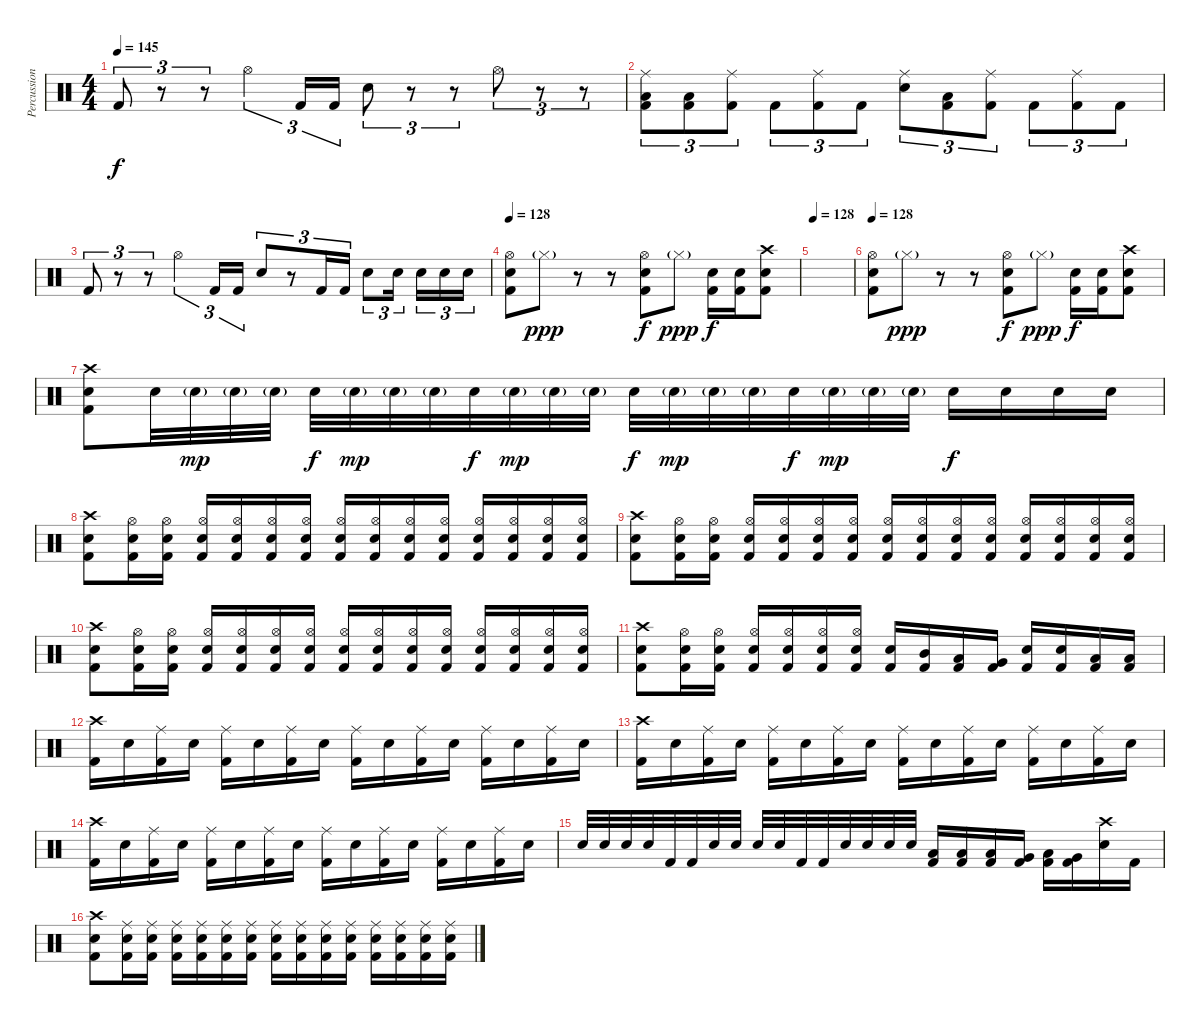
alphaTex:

\track ("Percussion" "Percussion") {instrument percussion}
\staff {score}
\articulation defaults
\ts (4 4)
\tempo 145
\clef neutral
\ks c "Kick (hit) 2".8{tu (3 2) dy f}
r.8{tu (3 2)} r.8{tu (3 2)} "Hi-Hat (open)".4{tu (3 2)} "Kick (hit) 2".16{tu (3 2)} "Kick (hit) 2".16{tu (3 2)} "Electric Snare (hit)".8{tu (3 2)} r.8{tu (3 2)} r.8{tu (3 2)} "Hi-Hat (open)".8{tu (3 2)} r.8{tu (3 2)} r.8{tu (3 2)} |
("Ride (middle)" "Low Floor Tom (hit)" "Kick (hit) 2").8{tu (3 2)} ("Low Floor Tom (hit)" "Kick (hit) 2").8{tu (3 2)} ("Ride (middle)" "Kick (hit) 2").8{tu (3 2)} "Kick (hit) 2".8{tu (3 2)} ("Ride (middle)" "Kick (hit) 2").8{tu (3 2)} "Kick (hit) 2".8{tu (3 2)} ("Ride (middle)" "Electric Snare (hit)").8{tu (3 2)} ("Low Floor Tom (hit)" "Kick (hit) 2").8{tu (3 2)} ("Ride (middle)" "Kick (hit) 2").8{tu (3 2)} "Kick (hit) 2".8{tu (3 2)} ("Ride (middle)" "Kick (hit) 2").8{tu (3 2)} "Kick (hit) 2".8{tu (3 2)} |
"Kick (hit) 2".8{tu (3 2)} r.8{tu (3 2)} r.8{tu (3 2)} "Hi-Hat (open)".4{tu (3 2)} "Kick (hit) 2".16{tu (3 2)} "Kick (hit) 2".16{tu (3 2)} "Electric Snare (hit)".8{tu (3 2)} r.8{tu (3 2)} "Kick (hit) 2".16{tu (3 2)} "Kick (hit) 2".16{tu (3 2)} "Electric Snare (hit)".8{tu (3 2)} "Electric Snare (hit)".16{tu (3 2)} "Electric Snare (hit)".16{tu (3 2)} "Electric Snare (hit)".16{tu (3 2)} "Electric Snare (hit)".16{tu (3 2)} |
\tempo 128
("Hi-Hat (open)" "Electric Snare (hit)" "Kick (hit) 2").8 "Hi-Hat (closed)"{g}.8{dy ppp} r.8 r.8 ("Hi-Hat (open)" "Electric Snare (hit)" "Kick (hit) 2").8{dy f} "Hi-Hat (closed)"{g}.8{dy ppp} ("Electric Snare (hit)" "Kick (hit) 2").16{dy f} ("Electric Snare (hit)" "Kick (hit) 2").16 ("Crash high (hit)" "Electric Snare (hit)" "Kick (hit) 2").8 |
\tempo 128
|
\tempo 128
("Hi-Hat (open)" "Electric Snare (hit)" "Kick (hit) 2").8 "Hi-Hat (closed)"{g}.8{dy ppp} r.8 r.8 ("Hi-Hat (open)" "Electric Snare (hit)" "Kick (hit) 2").8{dy f} "Hi-Hat (closed)"{g}.8{dy ppp} ("Electric Snare (hit)" "Kick (hit) 2").16{dy f} ("Electric Snare (hit)" "Kick (hit) 2").16 ("Crash high (hit)" "Electric Snare (hit)" "Kick (hit) 2").8 |
("Crash high (hit)" "Electric Snare (hit)" "Kick (hit) 2").8 "Electric Snare (hit)".32 "Electric Snare (hit)"{g}.32{dy mp} "Electric Snare (hit)"{g}.32 "Electric Snare (hit)"{g}.32 "Electric Snare (hit)".32{dy f} "Electric Snare (hit)"{g}.32{dy mp} "Electric Snare (hit)"{g}.32 "Electric Snare (hit)"{g}.32 "Electric Snare (hit)".32{dy f} "Electric Snare (hit)"{g}.32{dy mp} "Electric Snare (hit)"{g}.32 "Electric Snare (hit)"{g}.32 "Electric Snare (hit)".32{dy f} "Electric Snare (hit)"{g}.32{dy mp} "Electric Snare (hit)"{g}.32 "Electric Snare (hit)"{g}.32 "Electric Snare (hit)".32{dy f} "Electric Snare (hit)"{g}.32{dy mp} "Electric Snare (hit)"{g}.32 "Electric Snare (hit)"{g}.32 "Electric Snare (hit)".16{dy f} "Electric Snare (hit)".16 "Electric Snare (hit)".16 "Electric Snare (hit)".16 |
("Crash high (hit)" "Electric Snare (hit)" "Kick (hit) 2").8 ("Hi-Hat (open)" "Electric Snare (hit)" "Kick (hit) 2").16 ("Hi-Hat (open)" "Electric Snare (hit)" "Kick (hit) 2").16 ("Hi-Hat (open)" "Electric Snare (hit)" "Kick (hit) 2").16 ("Hi-Hat (open)" "Electric Snare (hit)" "Kick (hit) 2").16 ("Hi-Hat (open)" "Electric Snare (hit)" "Kick (hit) 2").16 ("Hi-Hat (open)" "Electric Snare (hit)" "Kick (hit) 2").16 ("Hi-Hat (open)" "Electric Snare (hit)" "Kick (hit) 2").16 ("Hi-Hat (open)" "Electric Snare (hit)" "Kick (hit) 2").16 ("Hi-Hat (open)" "Electric Snare (hit)" "Kick (hit) 2").16 ("Hi-Hat (open)" "Electric Snare (hit)" "Kick (hit) 2").16 ("Hi-Hat (open)" "Electric Snare (hit)" "Kick (hit) 2").16 ("Hi-Hat (open)" "Electric Snare (hit)" "Kick (hit) 2").16 ("Hi-Hat (open)" "Electric Snare (hit)" "Kick (hit) 2").16 ("Hi-Hat (open)" "Electric Snare (hit)" "Kick (hit) 2").16 |
("Crash high (hit)" "Electric Snare (hit)" "Kick (hit) 2").8 ("Hi-Hat (open)" "Electric Snare (hit)" "Kick (hit) 2").16 ("Hi-Hat (open)" "Electric Snare (hit)" "Kick (hit) 2").16 ("Hi-Hat (open)" "Electric Snare (hit)" "Kick (hit) 2").16 ("Hi-Hat (open)" "Electric Snare (hit)" "Kick (hit) 2").16 ("Hi-Hat (open)" "Electric Snare (hit)" "Kick (hit) 2").16 ("Hi-Hat (open)" "Electric Snare (hit)" "Kick (hit) 2").16 ("Hi-Hat (open)" "Electric Snare (hit)" "Kick (hit) 2").16 ("Hi-Hat (open)" "Electric Snare (hit)" "Kick (hit) 2").16 ("Hi-Hat (open)" "Electric Snare (hit)" "Kick (hit) 2").16 ("Hi-Hat (open)" "Electric Snare (hit)" "Kick (hit) 2").16 ("Hi-Hat (open)" "Electric Snare (hit)" "Kick (hit) 2").16 ("Hi-Hat (open)" "Electric Snare (hit)" "Kick (hit) 2").16 ("Hi-Hat (open)" "Electric Snare (hit)" "Kick (hit) 2").16 ("Hi-Hat (open)" "Electric Snare (hit)" "Kick (hit) 2").16 |
("Crash high (hit)" "Electric Snare (hit)" "Kick (hit) 2").8 ("Hi-Hat (open)" "Electric Snare (hit)" "Kick (hit) 2").16 ("Hi-Hat (open)" "Electric Snare (hit)" "Kick (hit) 2").16 ("Hi-Hat (open)" "Electric Snare (hit)" "Kick (hit) 2").16 ("Hi-Hat (open)" "Electric Snare (hit)" "Kick (hit) 2").16 ("Hi-Hat (open)" "Electric Snare (hit)" "Kick (hit) 2").16 ("Hi-Hat (open)" "Electric Snare (hit)" "Kick (hit) 2").16 ("Hi-Hat (open)" "Electric Snare (hit)" "Kick (hit) 2").16 ("Hi-Hat (open)" "Electric Snare (hit)" "Kick (hit) 2").16 ("Hi-Hat (open)" "Electric Snare (hit)" "Kick (hit) 2").16 ("Hi-Hat (open)" "Electric Snare (hit)" "Kick (hit) 2").16 ("Hi-Hat (open)" "Electric Snare (hit)" "Kick (hit) 2").16 ("Hi-Hat (open)" "Electric Snare (hit)" "Kick (hit) 2").16 ("Hi-Hat (open)" "Electric Snare (hit)" "Kick (hit) 2").16 ("Hi-Hat (open)" "Electric Snare (hit)" "Kick (hit) 2").16 |
("Crash high (hit)" "Electric Snare (hit)" "Kick (hit) 2").8 ("Hi-Hat (open)" "Electric Snare (hit)" "Kick (hit) 2").16 ("Hi-Hat (open)" "Electric Snare (hit)" "Kick (hit) 2").16 ("Hi-Hat (open)" "Electric Snare (hit)" "Kick (hit) 2").16 ("Hi-Hat (open)" "Electric Snare (hit)" "Kick (hit) 2").16 ("Hi-Hat (open)" "Electric Snare (hit)" "Kick (hit) 2").16 ("Hi-Hat (open)" "Electric Snare (hit)" "Kick (hit) 2").16 ("Electric Snare (hit)" "Kick (hit) 2").16 ("Mid Tom (hit)" "Kick (hit) 2").16 ("Low Tom (hit)" "Kick (hit) 2").16 ("Very Low Tom (hit)" "Kick (hit) 2").16 ("Electric Snare (hit)" "Kick (hit) 2").16 ("Electric Snare (hit)" "Kick (hit) 2").16 ("Low Tom (hit)" "Kick (hit) 2").16 ("Low Tom (hit)" "Kick (hit) 2").16 |
("Crash high (hit)" "Kick (hit) 2").16 "Electric Snare (hit)".16 ("Ride (middle)" "Kick (hit) 2").16 "Electric Snare (hit)".16 ("Ride (middle)" "Kick (hit) 2").16 "Electric Snare (hit)".16 ("Ride (middle)" "Kick (hit) 2").16 "Electric Snare (hit)".16 ("Ride (middle)" "Kick (hit) 2").16 "Electric Snare (hit)".16 ("Ride (middle)" "Kick (hit) 2").16 "Electric Snare (hit)".16 ("Ride (middle)" "Kick (hit) 2").16 "Electric Snare (hit)".16 ("Ride (middle)" "Kick (hit) 2").16 "Electric Snare (hit)".16 |
("Crash high (hit)" "Kick (hit) 2").16 "Electric Snare (hit)".16 ("Ride (middle)" "Kick (hit) 2").16 "Electric Snare (hit)".16 ("Ride (middle)" "Kick (hit) 2").16 "Electric Snare (hit)".16 ("Ride (middle)" "Kick (hit) 2").16 "Electric Snare (hit)".16 ("Ride (middle)" "Kick (hit) 2").16 "Electric Snare (hit)".16 ("Ride (middle)" "Kick (hit) 2").16 "Electric Snare (hit)".16 ("Ride (middle)" "Kick (hit) 2").16 "Electric Snare (hit)".16 ("Ride (middle)" "Kick (hit) 2").16 "Electric Snare (hit)".16 |
("Crash high (hit)" "Kick (hit) 2").16 "Electric Snare (hit)".16 ("Ride (middle)" "Kick (hit) 2").16 "Electric Snare (hit)".16 ("Ride (middle)" "Kick (hit) 2").16 "Electric Snare (hit)".16 ("Ride (middle)" "Kick (hit) 2").16 "Electric Snare (hit)".16 ("Ride (middle)" "Kick (hit) 2").16 "Electric Snare (hit)".16 ("Ride (middle)" "Kick (hit) 2").16 "Electric Snare (hit)".16 ("Ride (middle)" "Kick (hit) 2").16 "Electric Snare (hit)".16 ("Ride (middle)" "Kick (hit) 2").16 "Electric Snare (hit)".16 |
"Electric Snare (hit)".32 "Electric Snare (hit)".32 "Electric Snare (hit)".32 "Electric Snare (hit)".32 "Kick (hit) 2".32 "Kick (hit) 2".32 "Electric Snare (hit)".32 "Electric Snare (hit)".32 "Electric Snare (hit)".32 "Electric Snare (hit)".32 "Kick (hit) 2".32 "Kick (hit) 2".32 "Electric Snare (hit)".32 "Electric Snare (hit)".32 "Electric Snare (hit)".32 "Electric Snare (hit)".32 ("Low Floor Tom (hit)" "Kick (hit) 2").16 ("Low Floor Tom (hit)" "Kick (hit) 2").16 ("Low Floor Tom (hit)" "Kick (hit) 2").16 ("Very Low Tom (hit)" "Kick (hit) 2").16 ("Low Tom (hit)" "Kick (hit) 2").16 ("Very Low Tom (hit)" "Kick (hit) 2").16 ("Crash high (hit)" "Electric Snare (hit)").16 "Kick (hit) 2".16 |
("Crash high (hit)" "Electric Snare (hit)" "Kick (hit) 2").8 ("Ride (middle)" "Electric Snare (hit)" "Kick (hit) 2").16 ("Ride (middle)" "Electric Snare (hit)" "Kick (hit) 2").16 ("Ride (middle)" "Electric Snare (hit)" "Kick (hit) 2").16 ("Ride (middle)" "Electric Snare (hit)" "Kick (hit) 2").16 ("Ride (middle)" "Electric Snare (hit)" "Kick (hit) 2").16 ("Ride (middle)" "Electric Snare (hit)" "Kick (hit) 2").16 ("Ride (middle)" "Electric Snare (hit)" "Kick (hit) 2").16 ("Ride (middle)" "Electric Snare (hit)" "Kick (hit) 2").16 ("Ride (middle)" "Electric Snare (hit)" "Kick (hit) 2").16 ("Ride (middle)" "Electric Snare (hit)" "Kick (hit) 2").16 ("Ride (middle)" "Electric Snare (hit)" "Kick (hit) 2").16 ("Ride (middle)" "Electric Snare (hit)" "Kick (hit) 2").16 ("Ride (middle)" "Electric Snare (hit)" "Kick (hit) 2").16 ("Ride (middle)" "Electric Snare (hit)" "Kick (hit) 2").16
